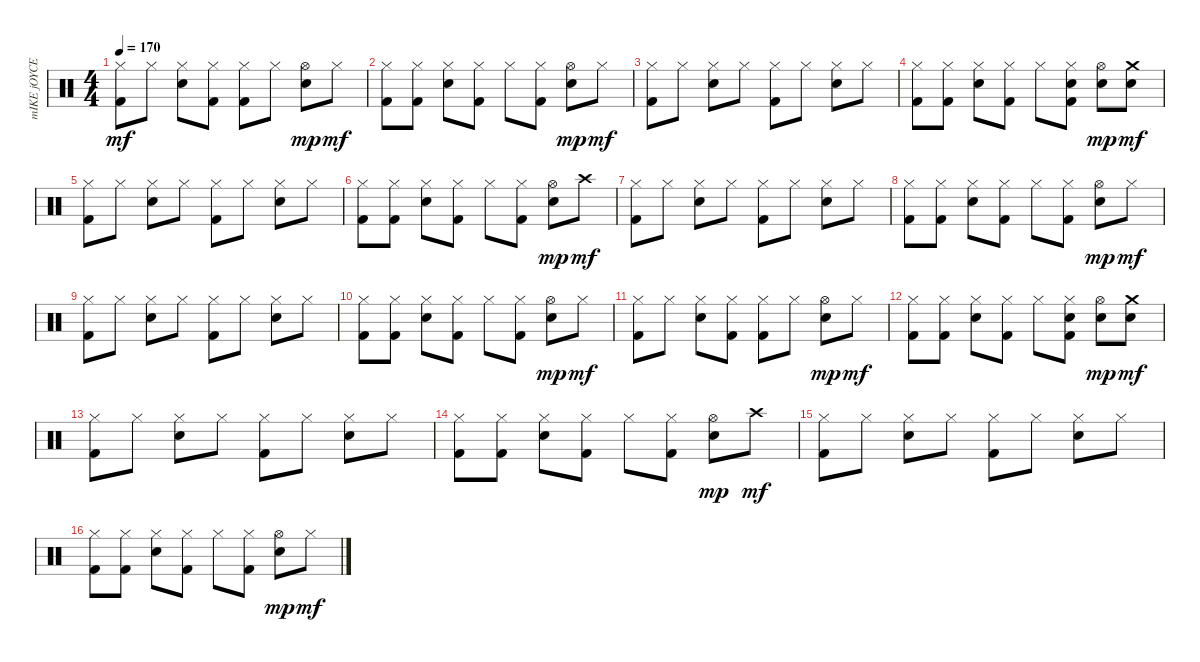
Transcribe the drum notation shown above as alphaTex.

\track ("mIKE jOYCE" "mIKE jOYCE") {instrument percussion}
\staff {score}
\articulation defaults
\ts (4 4)
\tempo 170
\clef neutral
\ks c
("Hi-Hat (closed)" "Kick (hit) 2").8{dy mf} "Hi-Hat (closed)".8 ("Hi-Hat (closed)" "Electric Snare (hit)").8 ("Hi-Hat (closed)" "Kick (hit) 2").8 ("Hi-Hat (closed)" "Kick (hit) 2").8 "Hi-Hat (closed)".8 ("Hi-Hat (open)" "Electric Snare (hit)").8{dy mp} "Hi-Hat (closed)".8{dy mf} |
("Hi-Hat (closed)" "Kick (hit) 2").8 ("Hi-Hat (closed)" "Kick (hit) 2").8 ("Hi-Hat (closed)" "Electric Snare (hit)").8 ("Hi-Hat (closed)" "Kick (hit) 2").8 "Hi-Hat (closed)".8 ("Hi-Hat (closed)" "Kick (hit) 2").8 ("Hi-Hat (open)" "Electric Snare (hit)").8{dy mp} "Hi-Hat (closed)".8{dy mf} |
("Hi-Hat (closed)" "Kick (hit) 2").8 "Hi-Hat (closed)".8 ("Hi-Hat (closed)" "Electric Snare (hit)").8 "Hi-Hat (closed)".8 ("Hi-Hat (closed)" "Kick (hit) 2").8 "Hi-Hat (closed)".8 ("Hi-Hat (closed)" "Electric Snare (hit)").8 "Hi-Hat (closed)".8 |
("Hi-Hat (closed)" "Kick (hit) 2").8 ("Hi-Hat (closed)" "Kick (hit) 2").8 ("Hi-Hat (closed)" "Electric Snare (hit)").8 ("Hi-Hat (closed)" "Kick (hit) 2").8 "Hi-Hat (closed)".8 ("Hi-Hat (closed)" "Electric Snare (hit)" "Kick (hit) 2").8 ("Hi-Hat (open)" "Electric Snare (hit)").8{dy mp} ("Crash medium (hit)" "Electric Snare (hit)").8{dy mf} |
("Hi-Hat (closed)" "Kick (hit) 2").8 "Hi-Hat (closed)".8 ("Hi-Hat (closed)" "Electric Snare (hit)").8 "Hi-Hat (closed)".8 ("Hi-Hat (closed)" "Kick (hit) 2").8 "Hi-Hat (closed)".8 ("Hi-Hat (closed)" "Electric Snare (hit)").8 "Hi-Hat (closed)".8 |
("Hi-Hat (closed)" "Kick (hit) 2").8 ("Hi-Hat (closed)" "Kick (hit) 2").8 ("Hi-Hat (closed)" "Electric Snare (hit)").8 ("Hi-Hat (closed)" "Kick (hit) 2").8 "Hi-Hat (closed)".8 ("Hi-Hat (closed)" "Kick (hit) 2").8 ("Hi-Hat (open)" "Electric Snare (hit)").8{dy mp} "Crash high (hit)".8{dy mf} |
("Hi-Hat (closed)" "Kick (hit) 2").8 "Hi-Hat (closed)".8 ("Hi-Hat (closed)" "Electric Snare (hit)").8 "Hi-Hat (closed)".8 ("Hi-Hat (closed)" "Kick (hit) 2").8 "Hi-Hat (closed)".8 ("Hi-Hat (closed)" "Electric Snare (hit)").8 "Hi-Hat (closed)".8 |
("Hi-Hat (closed)" "Kick (hit) 2").8 ("Hi-Hat (closed)" "Kick (hit) 2").8 ("Hi-Hat (closed)" "Electric Snare (hit)").8 ("Hi-Hat (closed)" "Kick (hit) 2").8 "Hi-Hat (closed)".8 ("Hi-Hat (closed)" "Kick (hit) 2").8 ("Hi-Hat (open)" "Electric Snare (hit)").8{dy mp} "Hi-Hat (closed)".8{dy mf} |
("Hi-Hat (closed)" "Kick (hit) 2").8 "Hi-Hat (closed)".8 ("Hi-Hat (closed)" "Electric Snare (hit)").8 "Hi-Hat (closed)".8 ("Hi-Hat (closed)" "Kick (hit) 2").8 "Hi-Hat (closed)".8 ("Hi-Hat (closed)" "Electric Snare (hit)").8 "Hi-Hat (closed)".8 |
("Hi-Hat (closed)" "Kick (hit) 2").8 ("Hi-Hat (closed)" "Kick (hit) 2").8 ("Hi-Hat (closed)" "Electric Snare (hit)").8 ("Hi-Hat (closed)" "Kick (hit) 2").8 "Hi-Hat (closed)".8 ("Hi-Hat (closed)" "Kick (hit) 2").8 ("Hi-Hat (open)" "Electric Snare (hit)").8{dy mp} "Hi-Hat (closed)".8{dy mf} |
("Hi-Hat (closed)" "Kick (hit) 2").8 "Hi-Hat (closed)".8 ("Hi-Hat (closed)" "Electric Snare (hit)").8 ("Hi-Hat (closed)" "Kick (hit) 2").8 ("Hi-Hat (closed)" "Kick (hit) 2").8 "Hi-Hat (closed)".8 ("Hi-Hat (open)" "Electric Snare (hit)").8{dy mp} "Hi-Hat (closed)".8{dy mf} |
("Hi-Hat (closed)" "Kick (hit) 2").8 ("Hi-Hat (closed)" "Kick (hit) 2").8 ("Hi-Hat (closed)" "Electric Snare (hit)").8 ("Hi-Hat (closed)" "Kick (hit) 2").8 "Hi-Hat (closed)".8 ("Hi-Hat (closed)" "Electric Snare (hit)" "Kick (hit) 2").8 ("Hi-Hat (open)" "Electric Snare (hit)").8{dy mp} ("Crash medium (hit)" "Electric Snare (hit)").8{dy mf} |
("Hi-Hat (closed)" "Kick (hit) 2").8 "Hi-Hat (closed)".8 ("Hi-Hat (closed)" "Electric Snare (hit)").8 "Hi-Hat (closed)".8 ("Hi-Hat (closed)" "Kick (hit) 2").8 "Hi-Hat (closed)".8 ("Hi-Hat (closed)" "Electric Snare (hit)").8 "Hi-Hat (closed)".8 |
("Hi-Hat (closed)" "Kick (hit) 2").8 ("Hi-Hat (closed)" "Kick (hit) 2").8 ("Hi-Hat (closed)" "Electric Snare (hit)").8 ("Hi-Hat (closed)" "Kick (hit) 2").8 "Hi-Hat (closed)".8 ("Hi-Hat (closed)" "Kick (hit) 2").8 ("Hi-Hat (open)" "Electric Snare (hit)").8{dy mp} "Crash high (hit)".8{dy mf} |
("Hi-Hat (closed)" "Kick (hit) 2").8 "Hi-Hat (closed)".8 ("Hi-Hat (closed)" "Electric Snare (hit)").8 "Hi-Hat (closed)".8 ("Hi-Hat (closed)" "Kick (hit) 2").8 "Hi-Hat (closed)".8 ("Hi-Hat (closed)" "Electric Snare (hit)").8 "Hi-Hat (closed)".8 |
("Hi-Hat (closed)" "Kick (hit) 2").8 ("Hi-Hat (closed)" "Kick (hit) 2").8 ("Hi-Hat (closed)" "Electric Snare (hit)").8 ("Hi-Hat (closed)" "Kick (hit) 2").8 "Hi-Hat (closed)".8 ("Hi-Hat (closed)" "Kick (hit) 2").8 ("Hi-Hat (open)" "Electric Snare (hit)").8{dy mp} "Hi-Hat (closed)".8{dy mf}
